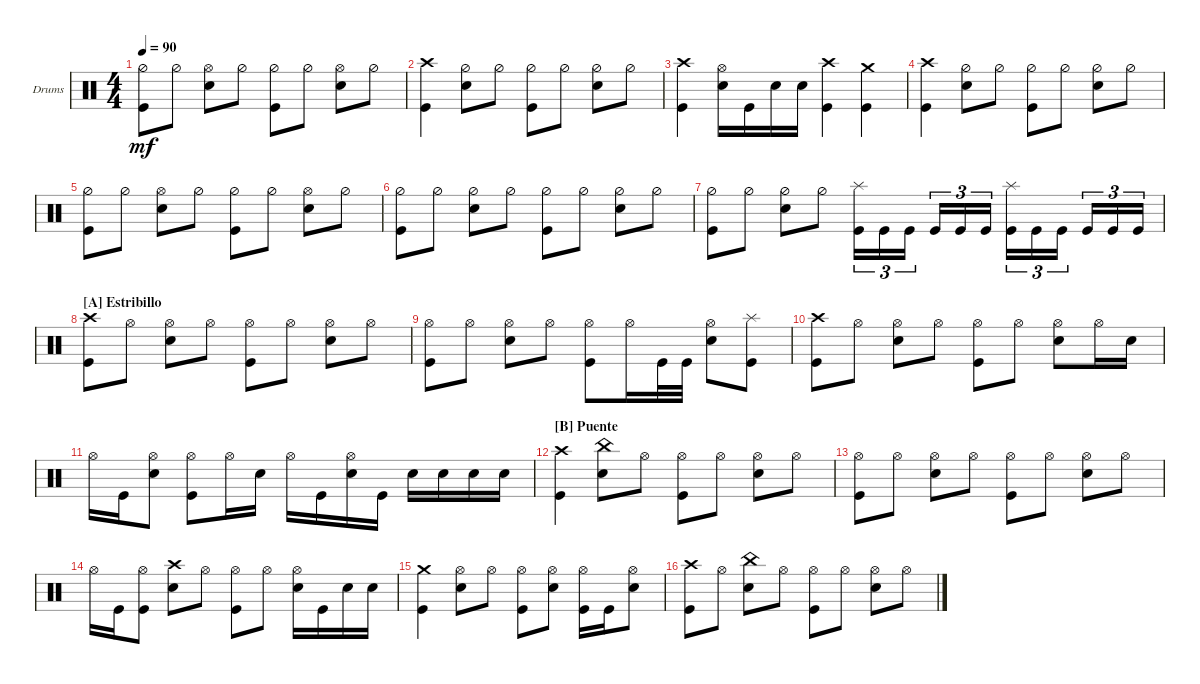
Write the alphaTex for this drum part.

\bracketExtendMode groupsimilarinstruments
\firstSystemTrackNameOrientation horizontal
\otherSystemsTrackNameOrientation horizontal
\track ("Arin Ilejay" "Drums") {instrument percussion}
\staff {score}
\articulation defaults
\ts (4 4)
\tempo 90
\clef neutral
\ks c
("Kick (hit)" "Hi-Hat (half)").8{dy mf} "Hi-Hat (half)".8 ("Hi-Hat (open)" "Snare (hit) 2").8 "Hi-Hat (half)".8 ("Hi-Hat (half)" "Kick (hit)").8 "Hi-Hat (half)".8 ("Hi-Hat (open)" "Snare (hit) 2").8 "Hi-Hat (half)".8 |
("Crash high (hit)" "Kick (hit)").4 ("Hi-Hat (half)" "Snare (hit) 2").8 "Hi-Hat (half)".8 ("Hi-Hat (half)" "Kick (hit)").8 "Hi-Hat (half)".8 ("Hi-Hat (half)" "Snare (hit) 2").8 "Hi-Hat (half)".8 |
("Kick (hit)" "Crash high (hit)").4 ("Hi-Hat (open)" "Snare (hit) 2").16 "Kick (hit)".16 "Snare (hit) 2".16 "Snare (hit) 2".16 ("Kick (hit)" "Crash high (hit)").4 ("Kick (hit)" "Crash medium (hit)").4 |
("Crash high (hit)" "Kick (hit)").4 ("Hi-Hat (half)" "Snare (hit) 2").8 "Hi-Hat (half)".8 ("Hi-Hat (half)" "Kick (hit)").8 "Hi-Hat (half)".8 ("Hi-Hat (half)" "Snare (hit) 2").8 "Hi-Hat (half)".8 |
("Kick (hit)" "Hi-Hat (half)").8 "Hi-Hat (half)".8 ("Hi-Hat (open)" "Snare (hit) 2").8 "Hi-Hat (half)".8 ("Hi-Hat (half)" "Kick (hit)").8 "Hi-Hat (half)".8 ("Hi-Hat (open)" "Snare (hit) 2").8 "Hi-Hat (half)".8 |
("Kick (hit)" "Hi-Hat (half)").8 "Hi-Hat (half)".8 ("Hi-Hat (half)" "Snare (hit) 2").8 "Hi-Hat (half)".8 ("Hi-Hat (half)" "Kick (hit)").8 "Hi-Hat (half)".8 ("Hi-Hat (half)" "Snare (hit) 2").8 "Hi-Hat (half)".8 |
("Hi-Hat (half)" "Kick (hit)").8 "Hi-Hat (half)".8 ("Snare (hit) 2" "Hi-Hat (half)").8 "Hi-Hat (half)".8 ("Kick (hit)" "Splash (hit)").16{tu (3 2)} "Kick (hit)".16{tu (3 2)} "Kick (hit)".16{tu (3 2)} "Kick (hit)".16{tu (3 2)} "Kick (hit)".16{tu (3 2)} "Kick (hit)".16{tu (3 2)} ("Kick (hit)" "Splash (hit)").16{tu (3 2)} "Kick (hit)".16{tu (3 2)} "Kick (hit)".16{tu (3 2)} "Kick (hit)".16{tu (3 2)} "Kick (hit)".16{tu (3 2)} "Kick (hit)".16{tu (3 2)} |
\section ("A" "Estribillo")
("Kick (hit)" "Crash high (hit)").8 "Hi-Hat (open)".8 ("Hi-Hat (open)" "Snare (hit) 2").8 "Hi-Hat (open)".8 ("Hi-Hat (open)" "Kick (hit)").8 "Hi-Hat (open)".8 ("Hi-Hat (open)" "Snare (hit) 2").8 "Hi-Hat (open)".8 |
("Hi-Hat (open)" "Kick (hit)").8 "Hi-Hat (open)".8 ("Hi-Hat (open)" "Snare (hit) 2").8 "Hi-Hat (open)".8 ("Hi-Hat (open)" "Kick (hit)").8 "Hi-Hat (open)".16 "Kick (hit)".32 "Kick (hit)".32 ("Snare (hit) 2" "Hi-Hat (open)").8 ("Splash (hit)" "Kick (hit)").8 |
("Kick (hit)" "Crash high (hit)").8 "Hi-Hat (open)".8 ("Hi-Hat (open)" "Snare (hit) 2").8 "Hi-Hat (open)".8 ("Hi-Hat (open)" "Kick (hit)").8 "Hi-Hat (open)".8 ("Hi-Hat (open)" "Snare (hit) 2").8 "Hi-Hat (open)".16 "Snare (hit) 2".16 |
"Hi-Hat (open)".16 "Kick (hit)".16 ("Snare (hit) 2" "Hi-Hat (open)").8 ("Kick (hit)" "Hi-Hat (open)").8 "Hi-Hat (open)".16 "Snare (hit) 2".16 "Hi-Hat (open)".16 "Kick (hit)".16 ("Snare (hit) 2" "Hi-Hat (open)").16 "Kick (hit)".16 "Snare (hit) 2".16 "Snare (hit) 2".16 "Snare (hit) 2".16 "Snare (hit) 2".16 |
\section ("B" "Puente")
("Crash high (hit)" "Kick (hit)").4 ("Snare (hit) 2" "China (hit)").8 "Hi-Hat (open)".8 ("Hi-Hat (open)" "Kick (hit)").8 "Hi-Hat (open)".8 ("Snare (hit) 2" "Hi-Hat (open)").8 "Hi-Hat (open)".8 |
("Hi-Hat (open)" "Kick (hit)").8 "Hi-Hat (open)".8 ("Snare (hit) 2" "Hi-Hat (open)").8 "Hi-Hat (open)".8 ("Hi-Hat (open)" "Kick (hit)").8 "Hi-Hat (open)".8 ("Snare (hit) 2" "Hi-Hat (open)").8 "Hi-Hat (open)".8 |
"Hi-Hat (open)".16 "Kick (hit)".16 ("Kick (hit)" "Hi-Hat (open)").8 ("Snare (hit) 2" "Crash high (hit)").8 "Hi-Hat (open)".8 ("Hi-Hat (open)" "Kick (hit)").8 "Hi-Hat (open)".8 ("Snare (hit) 2" "Hi-Hat (open)").16 "Kick (hit)".16 "Snare (hit) 2".16 "Snare (hit) 2".16 |
("Kick (hit)" "Crash medium (hit)").4 ("Snare (hit) 2" "Hi-Hat (open)").8 "Hi-Hat (open)".8 ("Hi-Hat (open)" "Kick (hit)").8 ("Snare (hit) 2" "Hi-Hat (open)").8 ("Kick (hit)" "Hi-Hat (open)").16 "Kick (hit)".16 ("Snare (hit) 2" "Hi-Hat (open)").8 |
("Crash high (hit)" "Kick (hit)").8 "Hi-Hat (open)".8 ("Snare (hit) 2" "China (hit)").8 "Hi-Hat (open)".8 ("Hi-Hat (open)" "Kick (hit)").8 "Hi-Hat (open)".8 ("Snare (hit) 2" "Hi-Hat (open)").8 "Hi-Hat (open)".8
